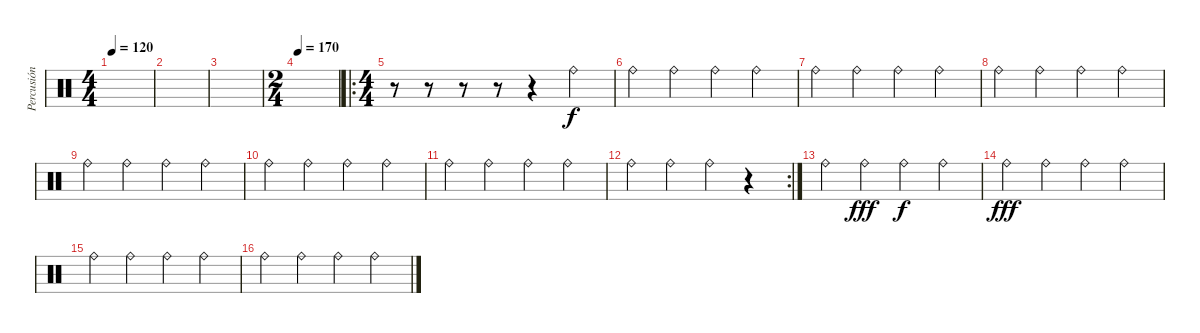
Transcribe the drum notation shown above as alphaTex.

\track ("Percusión" "Percusión") {instrument percussion}
\staff {score}
\articulation defaults
\ts (4 4)
\tempo 120
\clef neutral
\ks c
|
|
|
\ts (2 4)
\tempo 170
|
\ro
\ts (4 4)
r.8 r.8 r.8 r.8 r.4 "Ride (bell)".4 |
"Ride (bell)".4 "Ride (bell)".4 "Ride (bell)".4 "Ride (bell)".4 |
"Ride (bell)".4 "Ride (bell)".4 "Ride (bell)".4 "Ride (bell)".4 |
"Ride (bell)".4 "Ride (bell)".4 "Ride (bell)".4 "Ride (bell)".4 |
"Ride (bell)".4 "Ride (bell)".4 "Ride (bell)".4 "Ride (bell)".4 |
"Ride (bell)".4 "Ride (bell)".4 "Ride (bell)".4 "Ride (bell)".4 |
"Ride (bell)".4 "Ride (bell)".4 "Ride (bell)".4 "Ride (bell)".4 |
\rc 2 "Ride (bell)".4 "Ride (bell)".4 "Ride (bell)".4
r.4 |
"Ride (bell)".4{dy f} "Ride (bell)".4{dy fff} "Ride (bell)".4{dy f} "Ride (bell)".4 |
"Ride (bell)".4{dy fff} "Ride (bell)".4 "Ride (bell)".4 "Ride (bell)".4 |
"Ride (bell)".4 "Ride (bell)".4 "Ride (bell)".4 "Ride (bell)".4 |
"Ride (bell)".4 "Ride (bell)".4 "Ride (bell)".4 "Ride (bell)".4
